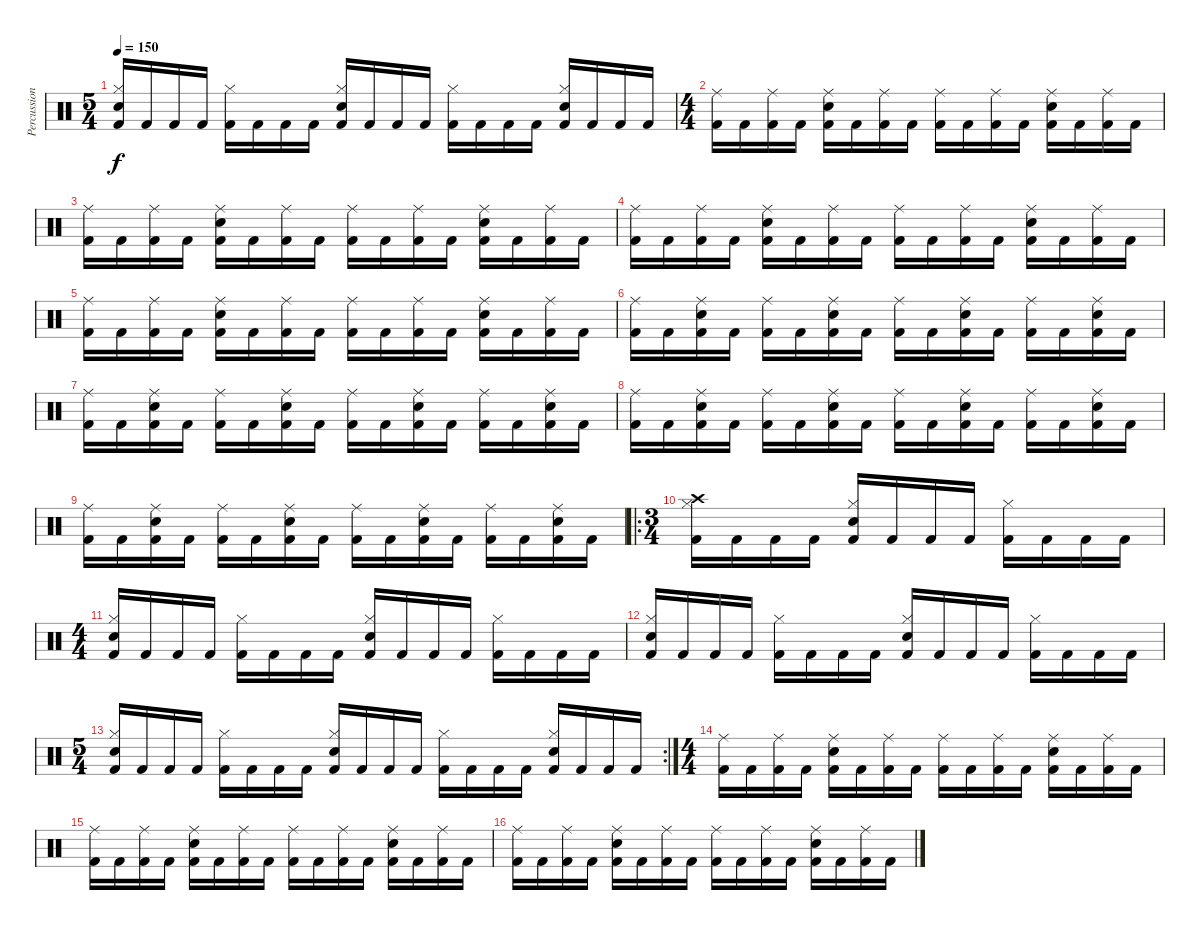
\track ("Percussion" "Percussion") {instrument percussion}
\staff {score}
\articulation defaults
\ts (5 4)
\tempo 150
\clef neutral
\ks c
("Kick (hit) 2" "Hi-Hat (closed)" "Snare (hit) 2").16{dy f} "Kick (hit) 2".16 "Kick (hit) 2".16 "Kick (hit) 2".16 ("Kick (hit) 2" "Hi-Hat (closed)").16 "Kick (hit) 2".16 "Kick (hit) 2".16 "Kick (hit) 2".16 ("Kick (hit) 2" "Hi-Hat (closed)" "Snare (hit) 2").16 "Kick (hit) 2".16 "Kick (hit) 2".16 "Kick (hit) 2".16 ("Kick (hit) 2" "Hi-Hat (closed)").16 "Kick (hit) 2".16 "Kick (hit) 2".16 "Kick (hit) 2".16 ("Kick (hit) 2" "Hi-Hat (closed)" "Snare (hit) 2").16 "Kick (hit) 2".16 "Kick (hit) 2".16 "Kick (hit) 2".16 |
\ts (4 4)
("Kick (hit) 2" "Ride (middle)").16 "Kick (hit) 2".16 ("Kick (hit) 2" "Ride (middle)").16 "Kick (hit) 2".16 ("Kick (hit) 2" "Ride (middle)" "Snare (hit) 2").16 "Kick (hit) 2".16 ("Kick (hit) 2" "Ride (middle)").16 "Kick (hit) 2".16 ("Kick (hit) 2" "Ride (middle)").16 "Kick (hit) 2".16 ("Kick (hit) 2" "Ride (middle)").16 "Kick (hit) 2".16 ("Kick (hit) 2" "Ride (middle)" "Snare (hit) 2").16 "Kick (hit) 2".16 ("Kick (hit) 2" "Ride (middle)").16 "Kick (hit) 2".16 |
("Kick (hit) 2" "Ride (middle)").16 "Kick (hit) 2".16 ("Kick (hit) 2" "Ride (middle)").16 "Kick (hit) 2".16 ("Kick (hit) 2" "Ride (middle)" "Snare (hit) 2").16 "Kick (hit) 2".16 ("Kick (hit) 2" "Ride (middle)").16 "Kick (hit) 2".16 ("Kick (hit) 2" "Ride (middle)").16 "Kick (hit) 2".16 ("Kick (hit) 2" "Ride (middle)").16 "Kick (hit) 2".16 ("Kick (hit) 2" "Ride (middle)" "Snare (hit) 2").16 "Kick (hit) 2".16 ("Kick (hit) 2" "Ride (middle)").16 "Kick (hit) 2".16 |
("Kick (hit) 2" "Ride (middle)").16 "Kick (hit) 2".16 ("Kick (hit) 2" "Ride (middle)").16 "Kick (hit) 2".16 ("Kick (hit) 2" "Ride (middle)" "Snare (hit) 2").16 "Kick (hit) 2".16 ("Kick (hit) 2" "Ride (middle)").16 "Kick (hit) 2".16 ("Kick (hit) 2" "Ride (middle)").16 "Kick (hit) 2".16 ("Kick (hit) 2" "Ride (middle)").16 "Kick (hit) 2".16 ("Kick (hit) 2" "Ride (middle)" "Snare (hit) 2").16 "Kick (hit) 2".16 ("Kick (hit) 2" "Ride (middle)").16 "Kick (hit) 2".16 |
("Kick (hit) 2" "Ride (middle)").16 "Kick (hit) 2".16 ("Kick (hit) 2" "Ride (middle)").16 "Kick (hit) 2".16 ("Kick (hit) 2" "Ride (middle)" "Snare (hit) 2").16 "Kick (hit) 2".16 ("Kick (hit) 2" "Ride (middle)").16 "Kick (hit) 2".16 ("Kick (hit) 2" "Ride (middle)").16 "Kick (hit) 2".16 ("Kick (hit) 2" "Ride (middle)").16 "Kick (hit) 2".16 ("Kick (hit) 2" "Ride (middle)" "Snare (hit) 2").16 "Kick (hit) 2".16 ("Kick (hit) 2" "Ride (middle)").16 "Kick (hit) 2".16 |
("Kick (hit) 2" "Ride (middle)").16 "Kick (hit) 2".16 ("Kick (hit) 2" "Ride (middle)" "Snare (hit) 2").16 "Kick (hit) 2".16 ("Kick (hit) 2" "Ride (middle)").16 "Kick (hit) 2".16 ("Kick (hit) 2" "Ride (middle)" "Snare (hit) 2").16 "Kick (hit) 2".16 ("Kick (hit) 2" "Ride (middle)").16 "Kick (hit) 2".16 ("Kick (hit) 2" "Ride (middle)" "Snare (hit) 2").16 "Kick (hit) 2".16 ("Kick (hit) 2" "Ride (middle)").16 "Kick (hit) 2".16 ("Kick (hit) 2" "Ride (middle)" "Snare (hit) 2").16 "Kick (hit) 2".16 |
("Kick (hit) 2" "Ride (middle)").16 "Kick (hit) 2".16 ("Kick (hit) 2" "Ride (middle)" "Snare (hit) 2").16 "Kick (hit) 2".16 ("Kick (hit) 2" "Ride (middle)").16 "Kick (hit) 2".16 ("Kick (hit) 2" "Ride (middle)" "Snare (hit) 2").16 "Kick (hit) 2".16 ("Kick (hit) 2" "Ride (middle)").16 "Kick (hit) 2".16 ("Kick (hit) 2" "Ride (middle)" "Snare (hit) 2").16 "Kick (hit) 2".16 ("Kick (hit) 2" "Ride (middle)").16 "Kick (hit) 2".16 ("Kick (hit) 2" "Ride (middle)" "Snare (hit) 2").16 "Kick (hit) 2".16 |
("Kick (hit) 2" "Ride (middle)").16 "Kick (hit) 2".16 ("Kick (hit) 2" "Ride (middle)" "Snare (hit) 2").16 "Kick (hit) 2".16 ("Kick (hit) 2" "Ride (middle)").16 "Kick (hit) 2".16 ("Kick (hit) 2" "Ride (middle)" "Snare (hit) 2").16 "Kick (hit) 2".16 ("Kick (hit) 2" "Ride (middle)").16 "Kick (hit) 2".16 ("Kick (hit) 2" "Ride (middle)" "Snare (hit) 2").16 "Kick (hit) 2".16 ("Kick (hit) 2" "Ride (middle)").16 "Kick (hit) 2".16 ("Kick (hit) 2" "Ride (middle)" "Snare (hit) 2").16 "Kick (hit) 2".16 |
("Kick (hit) 2" "Ride (middle)").16 "Kick (hit) 2".16 ("Kick (hit) 2" "Ride (middle)" "Snare (hit) 2").16 "Kick (hit) 2".16 ("Kick (hit) 2" "Ride (middle)").16 "Kick (hit) 2".16 ("Kick (hit) 2" "Ride (middle)" "Snare (hit) 2").16 "Kick (hit) 2".16 ("Kick (hit) 2" "Ride (middle)").16 "Kick (hit) 2".16 ("Kick (hit) 2" "Ride (middle)" "Snare (hit) 2").16 "Kick (hit) 2".16 ("Kick (hit) 2" "Ride (middle)").16 "Kick (hit) 2".16 ("Kick (hit) 2" "Ride (middle)" "Snare (hit) 2").16 "Kick (hit) 2".16 |
\ro
\ts (3 4)
("Kick (hit) 2" "Hi-Hat (closed)" "Crash high (hit)").16 "Kick (hit) 2".16 "Kick (hit) 2".16 "Kick (hit) 2".16 ("Kick (hit) 2" "Hi-Hat (closed)" "Snare (hit) 2").16 "Kick (hit) 2".16 "Kick (hit) 2".16 "Kick (hit) 2".16 ("Kick (hit) 2" "Hi-Hat (closed)").16 "Kick (hit) 2".16 "Kick (hit) 2".16 "Kick (hit) 2".16 |
\ts (4 4)
("Kick (hit) 2" "Hi-Hat (closed)" "Snare (hit) 2").16 "Kick (hit) 2".16 "Kick (hit) 2".16 "Kick (hit) 2".16 ("Kick (hit) 2" "Hi-Hat (closed)").16 "Kick (hit) 2".16 "Kick (hit) 2".16 "Kick (hit) 2".16 ("Kick (hit) 2" "Hi-Hat (closed)" "Snare (hit) 2").16 "Kick (hit) 2".16 "Kick (hit) 2".16 "Kick (hit) 2".16 ("Kick (hit) 2" "Hi-Hat (closed)").16 "Kick (hit) 2".16 "Kick (hit) 2".16 "Kick (hit) 2".16 |
("Kick (hit) 2" "Hi-Hat (closed)" "Snare (hit) 2").16 "Kick (hit) 2".16 "Kick (hit) 2".16 "Kick (hit) 2".16 ("Kick (hit) 2" "Hi-Hat (closed)").16 "Kick (hit) 2".16 "Kick (hit) 2".16 "Kick (hit) 2".16 ("Kick (hit) 2" "Hi-Hat (closed)" "Snare (hit) 2").16 "Kick (hit) 2".16 "Kick (hit) 2".16 "Kick (hit) 2".16 ("Kick (hit) 2" "Hi-Hat (closed)").16 "Kick (hit) 2".16 "Kick (hit) 2".16 "Kick (hit) 2".16 |
\rc 2
\ts (5 4)
("Kick (hit) 2" "Hi-Hat (closed)" "Snare (hit) 2").16 "Kick (hit) 2".16 "Kick (hit) 2".16 "Kick (hit) 2".16 ("Kick (hit) 2" "Hi-Hat (closed)").16 "Kick (hit) 2".16 "Kick (hit) 2".16 "Kick (hit) 2".16 ("Kick (hit) 2" "Hi-Hat (closed)" "Snare (hit) 2").16 "Kick (hit) 2".16 "Kick (hit) 2".16 "Kick (hit) 2".16 ("Kick (hit) 2" "Hi-Hat (closed)").16 "Kick (hit) 2".16 "Kick (hit) 2".16 "Kick (hit) 2".16 ("Kick (hit) 2" "Hi-Hat (closed)" "Snare (hit) 2").16 "Kick (hit) 2".16 "Kick (hit) 2".16 "Kick (hit) 2".16 |
\ts (4 4)
("Kick (hit) 2" "Ride (middle)").16 "Kick (hit) 2".16 ("Kick (hit) 2" "Ride (middle)").16 "Kick (hit) 2".16 ("Kick (hit) 2" "Ride (middle)" "Snare (hit) 2").16 "Kick (hit) 2".16 ("Kick (hit) 2" "Ride (middle)").16 "Kick (hit) 2".16 ("Kick (hit) 2" "Ride (middle)").16 "Kick (hit) 2".16 ("Kick (hit) 2" "Ride (middle)").16 "Kick (hit) 2".16 ("Kick (hit) 2" "Ride (middle)" "Snare (hit) 2").16 "Kick (hit) 2".16 ("Kick (hit) 2" "Ride (middle)").16 "Kick (hit) 2".16 |
("Kick (hit) 2" "Ride (middle)").16 "Kick (hit) 2".16 ("Kick (hit) 2" "Ride (middle)").16 "Kick (hit) 2".16 ("Kick (hit) 2" "Ride (middle)" "Snare (hit) 2").16 "Kick (hit) 2".16 ("Kick (hit) 2" "Ride (middle)").16 "Kick (hit) 2".16 ("Kick (hit) 2" "Ride (middle)").16 "Kick (hit) 2".16 ("Kick (hit) 2" "Ride (middle)").16 "Kick (hit) 2".16 ("Kick (hit) 2" "Ride (middle)" "Snare (hit) 2").16 "Kick (hit) 2".16 ("Kick (hit) 2" "Ride (middle)").16 "Kick (hit) 2".16 |
("Kick (hit) 2" "Ride (middle)").16 "Kick (hit) 2".16 ("Kick (hit) 2" "Ride (middle)").16 "Kick (hit) 2".16 ("Kick (hit) 2" "Ride (middle)" "Snare (hit) 2").16 "Kick (hit) 2".16 ("Kick (hit) 2" "Ride (middle)").16 "Kick (hit) 2".16 ("Kick (hit) 2" "Ride (middle)").16 "Kick (hit) 2".16 ("Kick (hit) 2" "Ride (middle)").16 "Kick (hit) 2".16 ("Kick (hit) 2" "Ride (middle)" "Snare (hit) 2").16 "Kick (hit) 2".16 ("Kick (hit) 2" "Ride (middle)").16 "Kick (hit) 2".16
